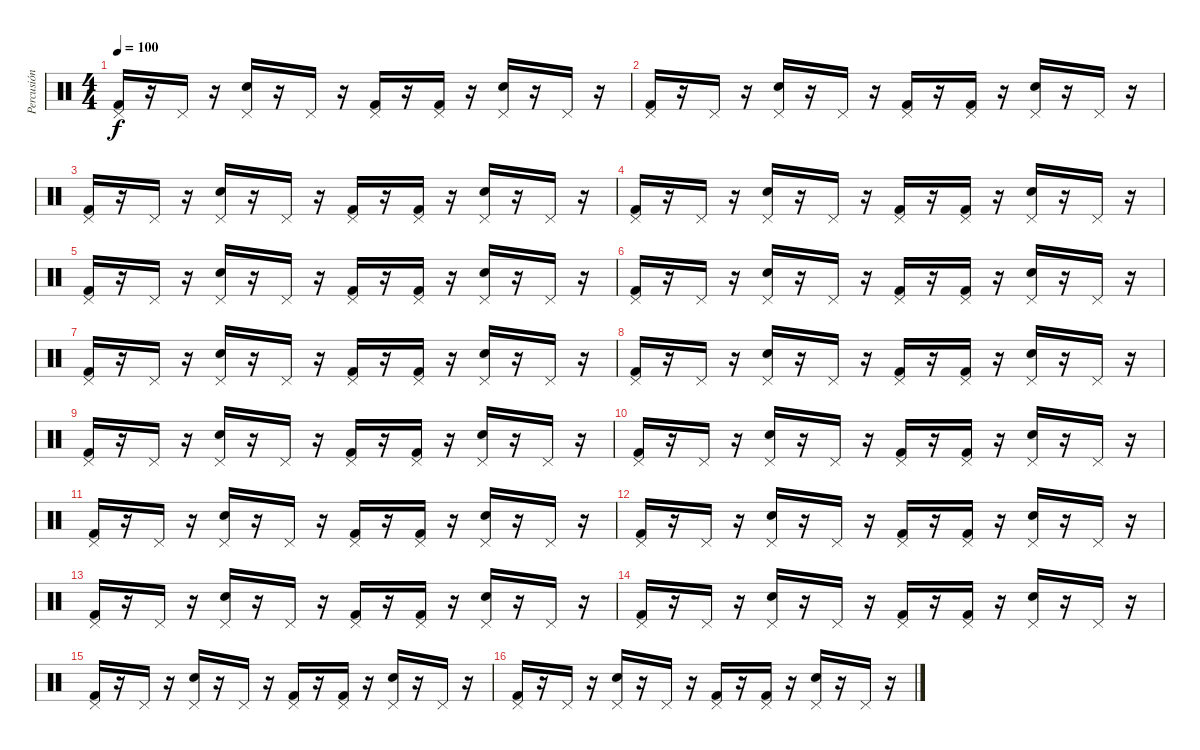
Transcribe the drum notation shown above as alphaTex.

\track ("Percusión" "Percusión") {instrument percussion}
\staff {score}
\articulation defaults
\ts (4 4)
\tempo 100
\clef neutral
\ks c
("Pedal Hi-Hat (hit)" "Kick (hit) 2").16{dy f} r.16 "Pedal Hi-Hat (hit)".16 r.16 ("Pedal Hi-Hat (hit)" "Snare (hit) 2").16 r.16 "Pedal Hi-Hat (hit)".16 r.16 ("Pedal Hi-Hat (hit)" "Kick (hit) 2").16 r.16 ("Pedal Hi-Hat (hit)" "Kick (hit) 2").16 r.16 ("Pedal Hi-Hat (hit)" "Snare (hit) 2").16 r.16 "Pedal Hi-Hat (hit)".16 r.16 |
("Pedal Hi-Hat (hit)" "Kick (hit) 2").16 r.16 "Pedal Hi-Hat (hit)".16 r.16 ("Pedal Hi-Hat (hit)" "Snare (hit) 2").16 r.16 "Pedal Hi-Hat (hit)".16 r.16 ("Pedal Hi-Hat (hit)" "Kick (hit) 2").16 r.16 ("Pedal Hi-Hat (hit)" "Kick (hit) 2").16 r.16 ("Pedal Hi-Hat (hit)" "Snare (hit) 2").16 r.16 "Pedal Hi-Hat (hit)".16 r.16 |
("Pedal Hi-Hat (hit)" "Kick (hit) 2").16 r.16 "Pedal Hi-Hat (hit)".16 r.16 ("Pedal Hi-Hat (hit)" "Snare (hit) 2").16 r.16 "Pedal Hi-Hat (hit)".16 r.16 ("Pedal Hi-Hat (hit)" "Kick (hit) 2").16 r.16 ("Pedal Hi-Hat (hit)" "Kick (hit) 2").16 r.16 ("Pedal Hi-Hat (hit)" "Snare (hit) 2").16 r.16 "Pedal Hi-Hat (hit)".16 r.16 |
("Pedal Hi-Hat (hit)" "Kick (hit) 2").16 r.16 "Pedal Hi-Hat (hit)".16 r.16 ("Pedal Hi-Hat (hit)" "Snare (hit) 2").16 r.16 "Pedal Hi-Hat (hit)".16 r.16 ("Pedal Hi-Hat (hit)" "Kick (hit) 2").16 r.16 ("Pedal Hi-Hat (hit)" "Kick (hit) 2").16 r.16 ("Pedal Hi-Hat (hit)" "Snare (hit) 2").16 r.16 "Pedal Hi-Hat (hit)".16 r.16 |
("Pedal Hi-Hat (hit)" "Kick (hit) 2").16 r.16 "Pedal Hi-Hat (hit)".16 r.16 ("Pedal Hi-Hat (hit)" "Snare (hit) 2").16 r.16 "Pedal Hi-Hat (hit)".16 r.16 ("Pedal Hi-Hat (hit)" "Kick (hit) 2").16 r.16 ("Pedal Hi-Hat (hit)" "Kick (hit) 2").16 r.16 ("Pedal Hi-Hat (hit)" "Snare (hit) 2").16 r.16 "Pedal Hi-Hat (hit)".16 r.16 |
("Pedal Hi-Hat (hit)" "Kick (hit) 2").16 r.16 "Pedal Hi-Hat (hit)".16 r.16 ("Pedal Hi-Hat (hit)" "Snare (hit) 2").16 r.16 "Pedal Hi-Hat (hit)".16 r.16 ("Pedal Hi-Hat (hit)" "Kick (hit) 2").16 r.16 ("Pedal Hi-Hat (hit)" "Kick (hit) 2").16 r.16 ("Pedal Hi-Hat (hit)" "Snare (hit) 2").16 r.16 "Pedal Hi-Hat (hit)".16 r.16 |
("Pedal Hi-Hat (hit)" "Kick (hit) 2").16 r.16 "Pedal Hi-Hat (hit)".16 r.16 ("Pedal Hi-Hat (hit)" "Snare (hit) 2").16 r.16 "Pedal Hi-Hat (hit)".16 r.16 ("Pedal Hi-Hat (hit)" "Kick (hit) 2").16 r.16 ("Pedal Hi-Hat (hit)" "Kick (hit) 2").16 r.16 ("Pedal Hi-Hat (hit)" "Snare (hit) 2").16 r.16 "Pedal Hi-Hat (hit)".16 r.16 |
("Pedal Hi-Hat (hit)" "Kick (hit) 2").16 r.16 "Pedal Hi-Hat (hit)".16 r.16 ("Pedal Hi-Hat (hit)" "Snare (hit) 2").16 r.16 "Pedal Hi-Hat (hit)".16 r.16 ("Pedal Hi-Hat (hit)" "Kick (hit) 2").16 r.16 ("Pedal Hi-Hat (hit)" "Kick (hit) 2").16 r.16 ("Pedal Hi-Hat (hit)" "Snare (hit) 2").16 r.16 "Pedal Hi-Hat (hit)".16 r.16 |
("Pedal Hi-Hat (hit)" "Kick (hit) 2").16 r.16 "Pedal Hi-Hat (hit)".16 r.16 ("Pedal Hi-Hat (hit)" "Snare (hit) 2").16 r.16 "Pedal Hi-Hat (hit)".16 r.16 ("Pedal Hi-Hat (hit)" "Kick (hit) 2").16 r.16 ("Pedal Hi-Hat (hit)" "Kick (hit) 2").16 r.16 ("Pedal Hi-Hat (hit)" "Snare (hit) 2").16 r.16 "Pedal Hi-Hat (hit)".16 r.16 |
("Pedal Hi-Hat (hit)" "Kick (hit) 2").16{volume 9} r.16 "Pedal Hi-Hat (hit)".16 r.16 ("Pedal Hi-Hat (hit)" "Snare (hit) 2").16 r.16 "Pedal Hi-Hat (hit)".16 r.16 ("Pedal Hi-Hat (hit)" "Kick (hit) 2").16 r.16 ("Pedal Hi-Hat (hit)" "Kick (hit) 2").16 r.16 ("Pedal Hi-Hat (hit)" "Snare (hit) 2").16 r.16 "Pedal Hi-Hat (hit)".16 r.16 |
("Pedal Hi-Hat (hit)" "Kick (hit) 2").16 r.16 "Pedal Hi-Hat (hit)".16 r.16 ("Pedal Hi-Hat (hit)" "Snare (hit) 2").16 r.16 "Pedal Hi-Hat (hit)".16 r.16 ("Pedal Hi-Hat (hit)" "Kick (hit) 2").16 r.16 ("Pedal Hi-Hat (hit)" "Kick (hit) 2").16 r.16 ("Pedal Hi-Hat (hit)" "Snare (hit) 2").16 r.16 "Pedal Hi-Hat (hit)".16 r.16 |
("Pedal Hi-Hat (hit)" "Kick (hit) 2").16 r.16 "Pedal Hi-Hat (hit)".16 r.16 ("Pedal Hi-Hat (hit)" "Snare (hit) 2").16 r.16 "Pedal Hi-Hat (hit)".16 r.16 ("Pedal Hi-Hat (hit)" "Kick (hit) 2").16 r.16 ("Pedal Hi-Hat (hit)" "Kick (hit) 2").16 r.16 ("Pedal Hi-Hat (hit)" "Snare (hit) 2").16 r.16 "Pedal Hi-Hat (hit)".16 r.16 |
("Pedal Hi-Hat (hit)" "Kick (hit) 2").16 r.16 "Pedal Hi-Hat (hit)".16 r.16 ("Pedal Hi-Hat (hit)" "Snare (hit) 2").16 r.16 "Pedal Hi-Hat (hit)".16 r.16 ("Pedal Hi-Hat (hit)" "Kick (hit) 2").16 r.16 ("Pedal Hi-Hat (hit)" "Kick (hit) 2").16 r.16 ("Pedal Hi-Hat (hit)" "Snare (hit) 2").16 r.16 "Pedal Hi-Hat (hit)".16 r.16 |
("Pedal Hi-Hat (hit)" "Kick (hit) 2").16{volume 6} r.16 "Pedal Hi-Hat (hit)".16 r.16 ("Pedal Hi-Hat (hit)" "Snare (hit) 2").16 r.16 "Pedal Hi-Hat (hit)".16 r.16 ("Pedal Hi-Hat (hit)" "Kick (hit) 2").16 r.16 ("Pedal Hi-Hat (hit)" "Kick (hit) 2").16 r.16 ("Pedal Hi-Hat (hit)" "Snare (hit) 2").16 r.16 "Pedal Hi-Hat (hit)".16 r.16 |
("Pedal Hi-Hat (hit)" "Kick (hit) 2").16 r.16 "Pedal Hi-Hat (hit)".16 r.16 ("Pedal Hi-Hat (hit)" "Snare (hit) 2").16 r.16 "Pedal Hi-Hat (hit)".16 r.16 ("Pedal Hi-Hat (hit)" "Kick (hit) 2").16 r.16 ("Pedal Hi-Hat (hit)" "Kick (hit) 2").16 r.16 ("Pedal Hi-Hat (hit)" "Snare (hit) 2").16 r.16 "Pedal Hi-Hat (hit)".16 r.16 |
("Pedal Hi-Hat (hit)" "Kick (hit) 2").16{volume 1} r.16 "Pedal Hi-Hat (hit)".16 r.16 ("Pedal Hi-Hat (hit)" "Snare (hit) 2").16 r.16 "Pedal Hi-Hat (hit)".16 r.16 ("Pedal Hi-Hat (hit)" "Kick (hit) 2").16 r.16 ("Pedal Hi-Hat (hit)" "Kick (hit) 2").16 r.16 ("Pedal Hi-Hat (hit)" "Snare (hit) 2").16 r.16 "Pedal Hi-Hat (hit)".16 r.16
